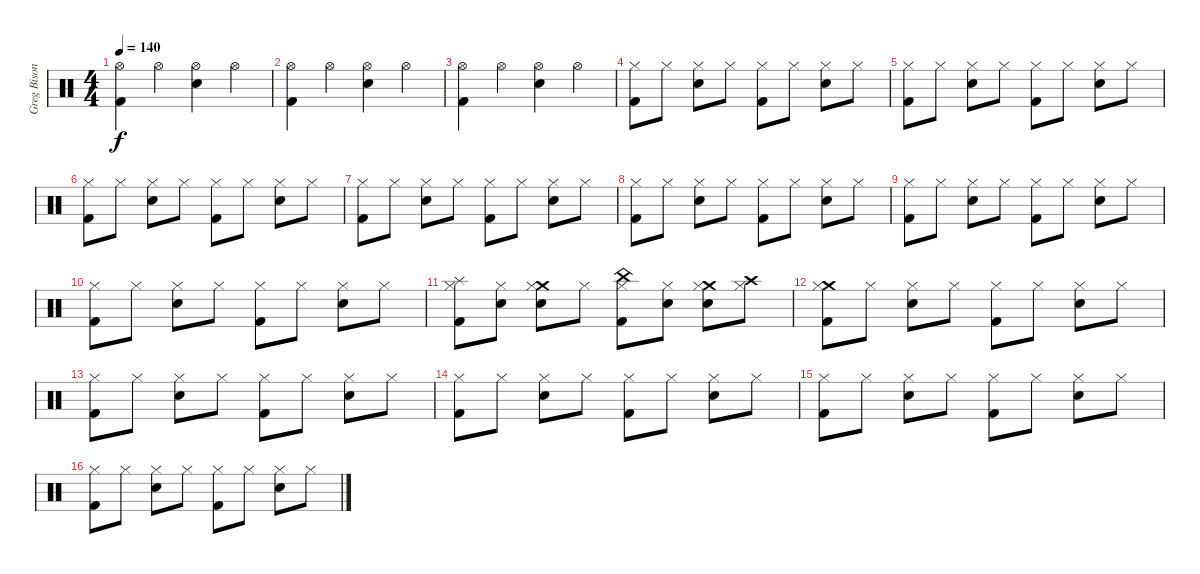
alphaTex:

\track ("Greg Bisonette" "Greg Bison") {instrument percussion}
\staff {score}
\articulation defaults
\ts (4 4)
\tempo 140
\clef neutral
\ks c
("Hi-Hat (open)" "Kick (hit) 2").4{dy f} "Hi-Hat (open)".4 ("Hi-Hat (open)" "Electric Snare (hit)").4 "Hi-Hat (open)".4 |
("Hi-Hat (open)" "Kick (hit) 2").4 "Hi-Hat (open)".4 ("Hi-Hat (open)" "Electric Snare (hit)").4 "Hi-Hat (open)".4 |
("Hi-Hat (open)" "Kick (hit) 2").4 "Hi-Hat (open)".4 ("Hi-Hat (open)" "Electric Snare (hit)").4 "Hi-Hat (open)".4 |
("Hi-Hat (closed)" "Kick (hit) 2").8 "Hi-Hat (closed)".8 ("Hi-Hat (closed)" "Electric Snare (hit)").8 "Hi-Hat (closed)".8 ("Hi-Hat (closed)" "Kick (hit) 2").8 "Hi-Hat (closed)".8 ("Hi-Hat (closed)" "Electric Snare (hit)").8 "Hi-Hat (closed)".8 |
("Hi-Hat (closed)" "Kick (hit) 2").8 "Hi-Hat (closed)".8 ("Hi-Hat (closed)" "Electric Snare (hit)").8 "Hi-Hat (closed)".8 ("Hi-Hat (closed)" "Kick (hit) 2").8 "Hi-Hat (closed)".8 ("Hi-Hat (closed)" "Electric Snare (hit)").8 "Hi-Hat (closed)".8 |
("Hi-Hat (closed)" "Kick (hit) 2").8 "Hi-Hat (closed)".8 ("Hi-Hat (closed)" "Electric Snare (hit)").8 "Hi-Hat (closed)".8 ("Hi-Hat (closed)" "Kick (hit) 2").8 "Hi-Hat (closed)".8 ("Hi-Hat (closed)" "Electric Snare (hit)").8 "Hi-Hat (closed)".8 |
("Hi-Hat (closed)" "Kick (hit) 2").8 "Hi-Hat (closed)".8 ("Hi-Hat (closed)" "Electric Snare (hit)").8 "Hi-Hat (closed)".8 ("Hi-Hat (closed)" "Kick (hit) 2").8 "Hi-Hat (closed)".8 ("Hi-Hat (closed)" "Electric Snare (hit)").8 "Hi-Hat (closed)".8 |
("Hi-Hat (closed)" "Kick (hit) 2").8 "Hi-Hat (closed)".8 ("Hi-Hat (closed)" "Electric Snare (hit)").8 "Hi-Hat (closed)".8 ("Hi-Hat (closed)" "Kick (hit) 2").8 "Hi-Hat (closed)".8 ("Hi-Hat (closed)" "Electric Snare (hit)").8 "Hi-Hat (closed)".8 |
("Hi-Hat (closed)" "Kick (hit) 2").8 "Hi-Hat (closed)".8 ("Hi-Hat (closed)" "Electric Snare (hit)").8 "Hi-Hat (closed)".8 ("Hi-Hat (closed)" "Kick (hit) 2").8 "Hi-Hat (closed)".8 ("Hi-Hat (closed)" "Electric Snare (hit)").8 "Hi-Hat (closed)".8 |
("Hi-Hat (closed)" "Kick (hit) 2").8 "Hi-Hat (closed)".8 ("Hi-Hat (closed)" "Electric Snare (hit)").8 "Hi-Hat (closed)".8 ("Hi-Hat (closed)" "Kick (hit) 2").8 "Hi-Hat (closed)".8 ("Hi-Hat (closed)" "Electric Snare (hit)").8 "Hi-Hat (closed)".8 |
("Splash (hit)" "Hi-Hat (closed)" "Kick (hit) 2").8 ("Hi-Hat (closed)" "Electric Snare (hit)").8 ("Crash medium (hit)" "Hi-Hat (closed)" "Electric Snare (hit)").8 "Hi-Hat (closed)".8 ("China (hit)" "Hi-Hat (closed)" "Kick (hit) 2").8 ("Hi-Hat (closed)" "Electric Snare (hit)").8 ("Crash medium (hit)" "Hi-Hat (closed)" "Electric Snare (hit)").8 ("Crash high (hit)" "Hi-Hat (closed)").8 |
("Crash medium (hit)" "Hi-Hat (closed)" "Kick (hit) 2").8 "Hi-Hat (closed)".8 ("Hi-Hat (closed)" "Electric Snare (hit)").8 "Hi-Hat (closed)".8 ("Hi-Hat (closed)" "Kick (hit) 2").8 "Hi-Hat (closed)".8 ("Hi-Hat (closed)" "Electric Snare (hit)").8 "Hi-Hat (closed)".8 |
("Hi-Hat (closed)" "Kick (hit) 2").8 "Hi-Hat (closed)".8 ("Hi-Hat (closed)" "Electric Snare (hit)").8 "Hi-Hat (closed)".8 ("Hi-Hat (closed)" "Kick (hit) 2").8 "Hi-Hat (closed)".8 ("Hi-Hat (closed)" "Electric Snare (hit)").8 "Hi-Hat (closed)".8 |
("Hi-Hat (closed)" "Kick (hit) 2").8 "Hi-Hat (closed)".8 ("Hi-Hat (closed)" "Electric Snare (hit)").8 "Hi-Hat (closed)".8 ("Hi-Hat (closed)" "Kick (hit) 2").8 "Hi-Hat (closed)".8 ("Hi-Hat (closed)" "Electric Snare (hit)").8 "Hi-Hat (closed)".8 |
("Hi-Hat (closed)" "Kick (hit) 2").8 "Hi-Hat (closed)".8 ("Hi-Hat (closed)" "Electric Snare (hit)").8 "Hi-Hat (closed)".8 ("Hi-Hat (closed)" "Kick (hit) 2").8 "Hi-Hat (closed)".8 ("Hi-Hat (closed)" "Electric Snare (hit)").8 "Hi-Hat (closed)".8 |
("Hi-Hat (closed)" "Kick (hit) 2").8 "Hi-Hat (closed)".8 ("Hi-Hat (closed)" "Electric Snare (hit)").8 "Hi-Hat (closed)".8 ("Hi-Hat (closed)" "Kick (hit) 2").8 "Hi-Hat (closed)".8 ("Hi-Hat (closed)" "Electric Snare (hit)").8 "Hi-Hat (closed)".8
